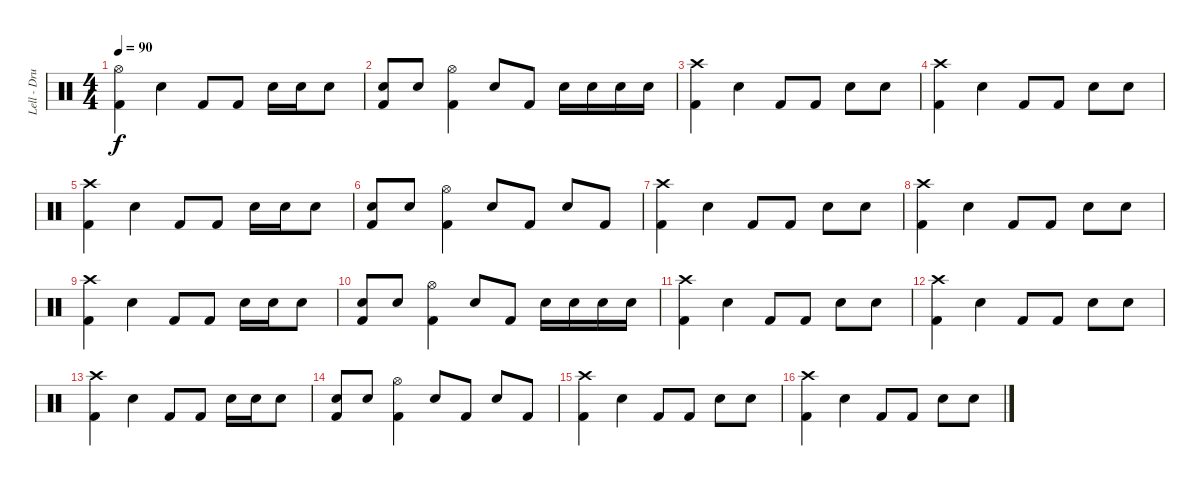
\track ("Lell - Drums" "Lell - Dru") {instrument percussion}
\staff {score}
\articulation defaults
\ts (4 4)
\tempo 90
\clef neutral
\ks c
("Hi-Hat (open)" "Kick (hit) 2").4{dy f} "Snare (hit) 2".4 "Kick (hit) 2".8 "Kick (hit) 2".8 "Snare (hit) 2".16 "Snare (hit) 2".16 "Snare (hit) 2".8 |
("Snare (hit) 2" "Kick (hit) 2").8 "Snare (hit) 2".8 ("Hi-Hat (open)" "Kick (hit) 2").4 "Snare (hit) 2".8 "Kick (hit) 2".8 "Snare (hit) 2".16 "Snare (hit) 2".16 "Snare (hit) 2".16 "Snare (hit) 2".16 |
("Crash high (hit)" "Kick (hit) 2").4 "Snare (hit) 2".4 "Kick (hit) 2".8 "Kick (hit) 2".8 "Snare (hit) 2".8 "Snare (hit) 2".8 |
("Crash high (hit)" "Kick (hit) 2").4 "Snare (hit) 2".4 "Kick (hit) 2".8 "Kick (hit) 2".8 "Snare (hit) 2".8 "Snare (hit) 2".8 |
("Crash high (hit)" "Kick (hit) 2").4 "Snare (hit) 2".4 "Kick (hit) 2".8 "Kick (hit) 2".8 "Snare (hit) 2".16 "Snare (hit) 2".16 "Snare (hit) 2".8 |
("Snare (hit) 2" "Kick (hit) 2").8 "Snare (hit) 2".8 ("Hi-Hat (open)" "Kick (hit) 2").4 "Snare (hit) 2".8 "Kick (hit) 2".8 "Snare (hit) 2".8 "Kick (hit) 2".8 |
("Crash high (hit)" "Kick (hit) 2").4 "Snare (hit) 2".4 "Kick (hit) 2".8 "Kick (hit) 2".8 "Snare (hit) 2".8 "Snare (hit) 2".8 |
("Crash high (hit)" "Kick (hit) 2").4 "Snare (hit) 2".4 "Kick (hit) 2".8 "Kick (hit) 2".8 "Snare (hit) 2".8 "Snare (hit) 2".8 |
("Crash high (hit)" "Kick (hit) 2").4 "Snare (hit) 2".4 "Kick (hit) 2".8 "Kick (hit) 2".8 "Snare (hit) 2".16 "Snare (hit) 2".16 "Snare (hit) 2".8 |
("Snare (hit) 2" "Kick (hit) 2").8 "Snare (hit) 2".8 ("Hi-Hat (open)" "Kick (hit) 2").4 "Snare (hit) 2".8 "Kick (hit) 2".8 "Snare (hit) 2".16 "Snare (hit) 2".16 "Snare (hit) 2".16 "Snare (hit) 2".16 |
("Crash high (hit)" "Kick (hit) 2").4 "Snare (hit) 2".4 "Kick (hit) 2".8 "Kick (hit) 2".8 "Snare (hit) 2".8 "Snare (hit) 2".8 |
("Crash high (hit)" "Kick (hit) 2").4 "Snare (hit) 2".4 "Kick (hit) 2".8 "Kick (hit) 2".8 "Snare (hit) 2".8 "Snare (hit) 2".8 |
("Crash high (hit)" "Kick (hit) 2").4 "Snare (hit) 2".4 "Kick (hit) 2".8 "Kick (hit) 2".8 "Snare (hit) 2".16 "Snare (hit) 2".16 "Snare (hit) 2".8 |
("Snare (hit) 2" "Kick (hit) 2").8 "Snare (hit) 2".8 ("Hi-Hat (open)" "Kick (hit) 2").4 "Snare (hit) 2".8 "Kick (hit) 2".8 "Snare (hit) 2".8 "Kick (hit) 2".8 |
("Crash high (hit)" "Kick (hit) 2").4 "Snare (hit) 2".4 "Kick (hit) 2".8 "Kick (hit) 2".8 "Snare (hit) 2".8 "Snare (hit) 2".8 |
("Crash high (hit)" "Kick (hit) 2").4 "Snare (hit) 2".4 "Kick (hit) 2".8 "Kick (hit) 2".8 "Snare (hit) 2".8 "Snare (hit) 2".8
